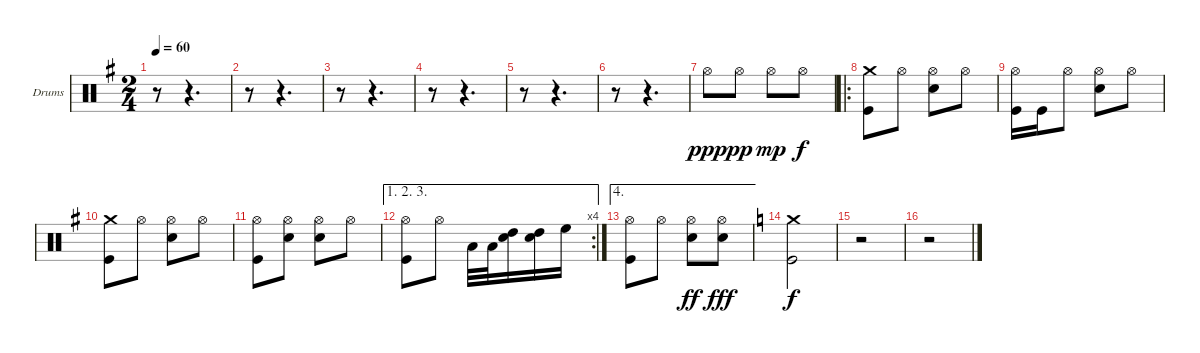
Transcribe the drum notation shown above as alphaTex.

\defaultSystemsLayout 4
\bracketExtendMode groupsimilarinstruments
\firstSystemTrackNameOrientation horizontal
\otherSystemsTrackNameOrientation horizontal
\track ("Drumkit" "Drums") {instrument percussion}
\staff {score}
\articulation defaults
\ts (2 4)
\tempo 60
\clef neutral
\ks eminor
r.8{dy f} r.4{d} |
r.8 r.4{d} |
r.8 r.4{d} |
r.8 r.4{d} |
r.8 r.4{d} |
r.8 r.4{d} |
"Hi-Hat (open)".8{dy ppp} "Hi-Hat (open)".8{dy pp} "Hi-Hat (open)".8{dy mp} "Hi-Hat (open)".8{dy f} |
\ro
("Crash medium (hit)" "Kick (hit)").8 "Hi-Hat (open)".8 ("Hi-Hat (open)" "Snare (hit) 2").8 "Hi-Hat (open)".8 |
("Hi-Hat (open)" "Kick (hit)").16 "Kick (hit)".16 "Hi-Hat (open)".8 ("Hi-Hat (open)" "Snare (hit) 2").8 "Hi-Hat (open)".8 |
("Crash medium (hit)" "Kick (hit)").8 "Hi-Hat (open)".8 ("Hi-Hat (open)" "Snare (hit) 2").8 "Hi-Hat (open)".8 |
("Hi-Hat (open)" "Kick (hit)").8 ("Hi-Hat (open)" "Snare (hit) 2").8 ("Hi-Hat (open)" "Snare (hit) 2").8 "Hi-Hat (open)".8 |
\ae (1 2 3)
\rc 4
("Hi-Hat (open)" "Kick (hit)").8 "Hi-Hat (open)".8 "Low Tom (hit)".32 "Low Tom (hit)".32 ("Snare (hit) 2" "High Tom (hit)").16 ("Snare (hit) 2" "High Tom (hit)").16 "High Floor Tom (hit)".16 |
\ae 4
("Hi-Hat (open)" "Kick (hit)").8 "Hi-Hat (open)".8 ("Hi-Hat (open)" "Snare (hit) 2").8{dy ff} ("Hi-Hat (open)" "Snare (hit) 2").8{dy fff} |
\ks aminor
("Crash medium (hit)" "Kick (hit)").2{dy f} |
r.2 |
r.2
